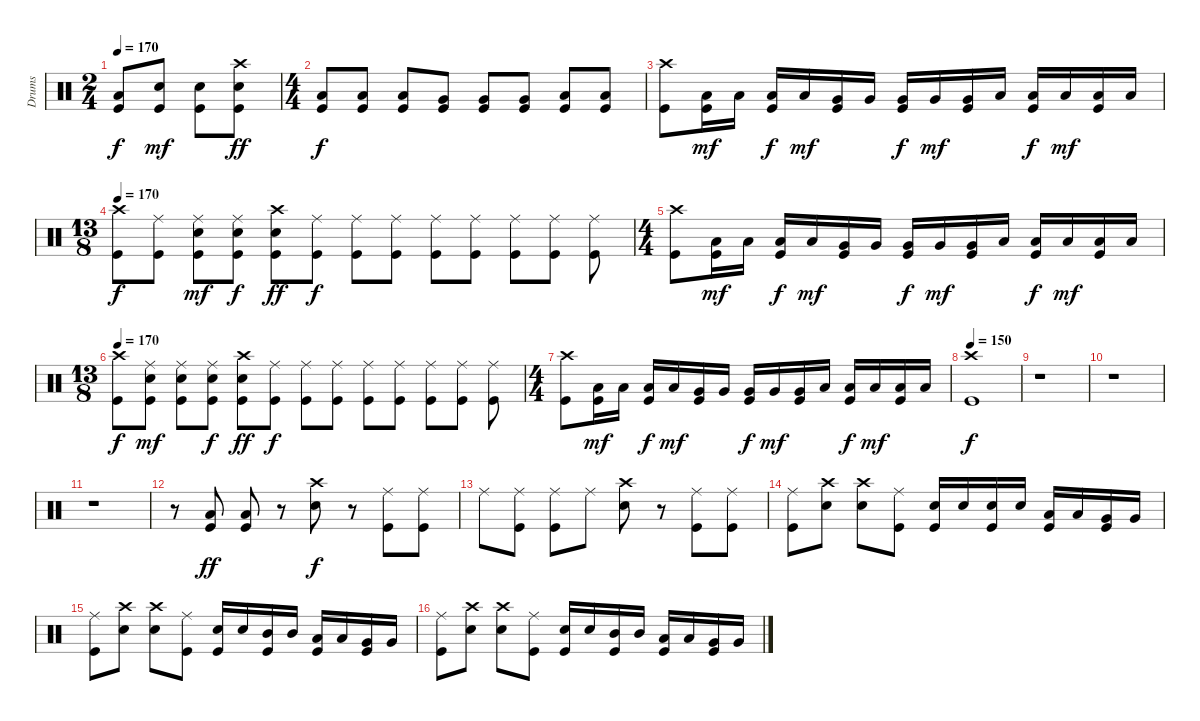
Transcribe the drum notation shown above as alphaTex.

\track ("Drums" "Drums") {instrument percussion}
\staff {score}
\articulation defaults
\ts (2 4)
\tempo 170
\clef neutral
\ks c
("Low Floor Tom (hit)" "Kick (hit)").8{dy f} ("Electric Snare (hit)" "Kick (hit)").8{dy mf} ("Electric Snare (hit)" "Kick (hit)").8 ("Crash high (hit)" "Electric Snare (hit)" "Kick (hit)").8{dy ff} |
\ts (4 4)
("Low Floor Tom (hit)" "Kick (hit)").8{dy f} ("Low Floor Tom (hit)" "Kick (hit)").8 ("Low Floor Tom (hit)" "Kick (hit)").8 ("Very Low Tom (hit)" "Kick (hit)").8 ("Very Low Tom (hit)" "Kick (hit)").8 ("Very Low Tom (hit)" "Kick (hit)").8 ("Low Tom (hit)" "Kick (hit)").8 ("Low Tom (hit)" "Kick (hit)").8 |
("Crash high (hit)" "Kick (hit)").8 ("Low Tom (hit)" "Kick (hit)").16{dy mf} "Low Tom (hit)".16 ("Low Tom (hit)" "Kick (hit)").16{dy f} "Low Tom (hit)".16{dy mf} ("Very Low Tom (hit)" "Kick (hit)").16 "Very Low Tom (hit)".16 ("Very Low Tom (hit)" "Kick (hit)").16{dy f} "Very Low Tom (hit)".16{dy mf} ("Very Low Tom (hit)" "Kick (hit)").16 "Low Floor Tom (hit)".16 ("Low Floor Tom (hit)" "Kick (hit)").16{dy f} "Low Floor Tom (hit)".16{dy mf} ("Low Floor Tom (hit)" "Kick (hit)").16 "Low Floor Tom (hit)".16 |
\ts (13 8)
\tempo 170
("Crash high (hit)" "Kick (hit)").8{dy f} ("Ride (middle)" "Kick (hit)").8 ("Ride (middle)" "Electric Snare (hit)" "Kick (hit)").8{dy mf} ("Ride (middle)" "Electric Snare (hit)" "Kick (hit)").8{dy f} ("Crash high (hit)" "Electric Snare (hit)" "Kick (hit)").8{dy ff} ("Ride (middle)" "Kick (hit)").8{dy f} ("Ride (middle)" "Kick (hit)").8 ("Ride (middle)" "Kick (hit)").8 ("Ride (middle)" "Kick (hit)").8 ("Ride (middle)" "Kick (hit)").8 ("Ride (middle)" "Kick (hit)").8 ("Ride (middle)" "Kick (hit)").8 ("Ride (middle)" "Kick (hit)").8 |
\ts (4 4)
("Crash high (hit)" "Kick (hit)").8 ("Low Tom (hit)" "Kick (hit)").16{dy mf} "Low Tom (hit)".16 ("Low Tom (hit)" "Kick (hit)").16{dy f} "Low Tom (hit)".16{dy mf} ("Very Low Tom (hit)" "Kick (hit)").16 "Very Low Tom (hit)".16 ("Very Low Tom (hit)" "Kick (hit)").16{dy f} "Very Low Tom (hit)".16{dy mf} ("Very Low Tom (hit)" "Kick (hit)").16 "Low Floor Tom (hit)".16 ("Low Floor Tom (hit)" "Kick (hit)").16{dy f} "Low Floor Tom (hit)".16{dy mf} ("Low Floor Tom (hit)" "Kick (hit)").16 "Low Floor Tom (hit)".16 |
\ts (13 8)
\tempo 170
("Crash high (hit)" "Kick (hit)").8{dy f} ("Ride (middle)" "Electric Snare (hit)" "Kick (hit)").8{dy mf} ("Ride (middle)" "Electric Snare (hit)" "Kick (hit)").8 ("Ride (middle)" "Electric Snare (hit)" "Kick (hit)").8{dy f} ("Crash high (hit)" "Electric Snare (hit)" "Kick (hit)").8{dy ff} ("Ride (middle)" "Kick (hit)").8{dy f} ("Ride (middle)" "Kick (hit)").8 ("Ride (middle)" "Kick (hit)").8 ("Ride (middle)" "Kick (hit)").8 ("Ride (middle)" "Kick (hit)").8 ("Ride (middle)" "Kick (hit)").8 ("Ride (middle)" "Kick (hit)").8 ("Ride (middle)" "Kick (hit)").8 |
\ts (4 4)
("Crash high (hit)" "Kick (hit)").8 ("Low Tom (hit)" "Kick (hit)").16{dy mf} "Low Tom (hit)".16 ("Low Tom (hit)" "Kick (hit)").16{dy f} "Low Tom (hit)".16{dy mf} ("Very Low Tom (hit)" "Kick (hit)").16 "Very Low Tom (hit)".16 ("Very Low Tom (hit)" "Kick (hit)").16{dy f} "Very Low Tom (hit)".16{dy mf} ("Very Low Tom (hit)" "Kick (hit)").16 "Low Floor Tom (hit)".16 ("Low Floor Tom (hit)" "Kick (hit)").16{dy f} "Low Floor Tom (hit)".16{dy mf} ("Low Floor Tom (hit)" "Kick (hit)").16 "Low Floor Tom (hit)".16 |
\tempo 150
("Crash high (hit)" "Kick (hit)").1{dy f} |
r.1 |
r.1 |
r.1 |
r.8 ("Low Tom (hit)" "Kick (hit)").8{dy ff} ("Low Tom (hit)" "Kick (hit)").8 r.8 ("Crash high (hit)" "Electric Snare (hit)").8{dy f} r.8 ("Ride (middle)" "Kick (hit)").8 ("Ride (middle)" "Kick (hit)").8 |
"Ride (middle)".8 ("Ride (middle)" "Kick (hit)").8 ("Ride (middle)" "Kick (hit)").8 "Ride (middle)".8 ("Crash high (hit)" "Electric Snare (hit)").8 r.8 ("Ride (middle)" "Kick (hit)").8 ("Ride (middle)" "Kick (hit)").8 |
("Ride (middle)" "Kick (hit)").8 ("Crash high (hit)" "Electric Snare (hit)").8 ("Crash high (hit)" "Electric Snare (hit)").8 ("Ride (middle)" "Kick (hit)").8 ("Electric Snare (hit)" "Kick (hit)").16 "Electric Snare (hit)".16 ("Electric Snare (hit)" "Kick (hit)").16 "Electric Snare (hit)".16 ("Low Tom (hit)" "Kick (hit)").16 "Low Tom (hit)".16 ("Very Low Tom (hit)" "Kick (hit)").16 "Very Low Tom (hit)".16 |
("Ride (middle)" "Kick (hit)").8 ("Crash high (hit)" "Electric Snare (hit)").8 ("Crash high (hit)" "Electric Snare (hit)").8 ("Ride (middle)" "Kick (hit)").8 ("Electric Snare (hit)" "Kick (hit)").16 "Electric Snare (hit)".16 ("Mid Tom (hit)" "Kick (hit)").16 "Mid Tom (hit)".16 ("Low Tom (hit)" "Kick (hit)").16 "Low Tom (hit)".16 ("Very Low Tom (hit)" "Kick (hit)").16 "Very Low Tom (hit)".16 |
("Ride (middle)" "Kick (hit)").8 ("Crash high (hit)" "Electric Snare (hit)").8 ("Crash high (hit)" "Electric Snare (hit)").8 ("Ride (middle)" "Kick (hit)").8 ("Electric Snare (hit)" "Kick (hit)").16 "Electric Snare (hit)".16 ("Mid Tom (hit)" "Kick (hit)").16 "Mid Tom (hit)".16 ("Low Tom (hit)" "Kick (hit)").16 "Low Tom (hit)".16 ("Very Low Tom (hit)" "Kick (hit)").16 "Very Low Tom (hit)".16
